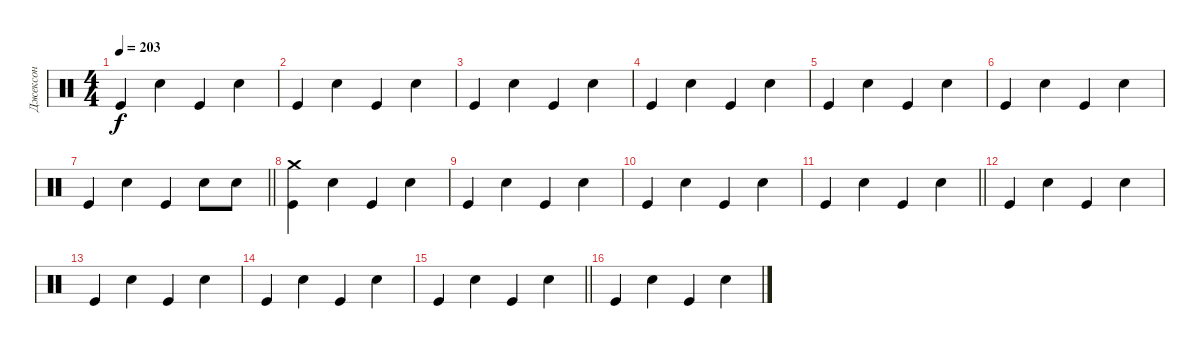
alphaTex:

\track ("Джексон" "Джексон") {instrument percussion}
\staff {score}
\articulation defaults
\ts (4 4)
\tempo 203
\clef neutral
\ks c "Kick (hit)".4{dy f} "Snare (hit) 2".4 "Kick (hit)".4 "Snare (hit) 2".4
|
"Kick (hit)".4 "Snare (hit) 2".4 "Kick (hit)".4 "Snare (hit) 2".4 |
"Kick (hit)".4 "Snare (hit) 2".4 "Kick (hit)".4 "Snare (hit) 2".4 |
"Kick (hit)".4 "Snare (hit) 2".4 "Kick (hit)".4 "Snare (hit) 2".4 |
"Kick (hit)".4 "Snare (hit) 2".4 "Kick (hit)".4 "Snare (hit) 2".4 |
"Kick (hit)".4 "Snare (hit) 2".4 "Kick (hit)".4 "Snare (hit) 2".4 |
\barLineRight lightlight "Kick (hit)".4 "Snare (hit) 2".4 "Kick (hit)".4 "Snare (hit) 2".8 "Snare (hit) 2".8
|
("Crash medium (hit)" "Kick (hit)").4 "Snare (hit) 2".4 "Kick (hit)".4 "Snare (hit) 2".4 |
"Kick (hit)".4 "Snare (hit) 2".4 "Kick (hit)".4 "Snare (hit) 2".4 |
"Kick (hit)".4 "Snare (hit) 2".4 "Kick (hit)".4 "Snare (hit) 2".4 |
\barLineRight lightlight "Kick (hit)".4 "Snare (hit) 2".4 "Kick (hit)".4 "Snare (hit) 2".4
|
"Kick (hit)".4 "Snare (hit) 2".4 "Kick (hit)".4 "Snare (hit) 2".4 |
"Kick (hit)".4 "Snare (hit) 2".4 "Kick (hit)".4 "Snare (hit) 2".4 |
"Kick (hit)".4 "Snare (hit) 2".4 "Kick (hit)".4 "Snare (hit) 2".4 |
\barLineRight lightlight "Kick (hit)".4 "Snare (hit) 2".4 "Kick (hit)".4 "Snare (hit) 2".4
|
"Kick (hit)".4 "Snare (hit) 2".4 "Kick (hit)".4 "Snare (hit) 2".4
